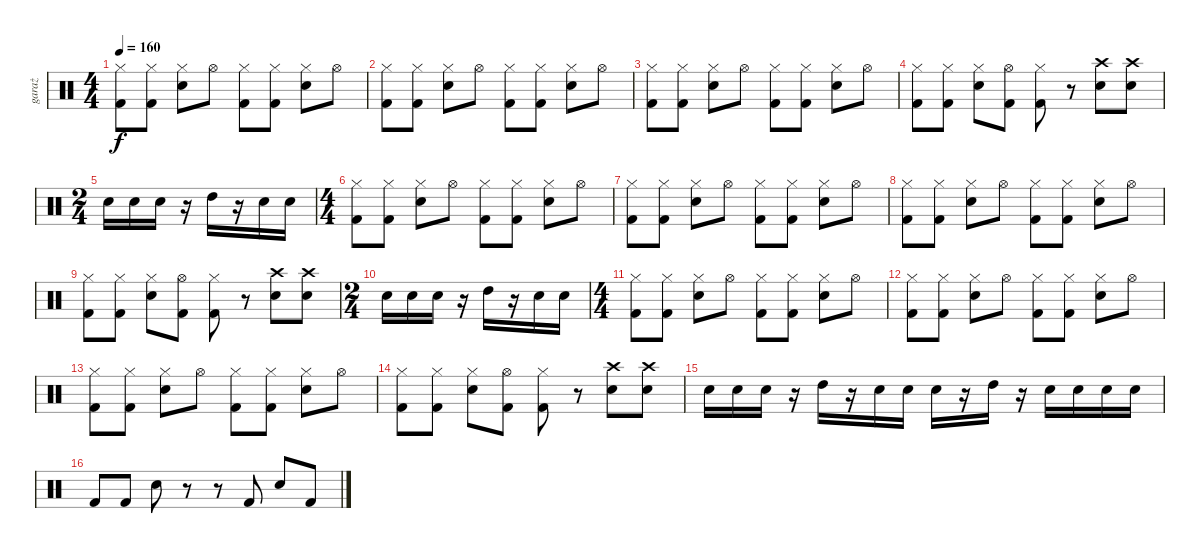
\track ("garaż" "garaż") {instrument percussion}
\staff {score}
\articulation defaults
\ts (4 4)
\tempo 160
\clef neutral
\ks c
("Hi-Hat (closed)" "Kick (hit) 2").8{dy f} ("Hi-Hat (closed)" "Kick (hit) 2").8 ("Hi-Hat (closed)" "Snare (hit) 2").8 "Hi-Hat (open)".8 ("Hi-Hat (closed)" "Kick (hit) 2").8 ("Hi-Hat (closed)" "Kick (hit) 2").8 ("Hi-Hat (closed)" "Snare (hit) 2").8 "Hi-Hat (open)".8 |
("Hi-Hat (closed)" "Kick (hit) 2").8 ("Hi-Hat (closed)" "Kick (hit) 2").8 ("Hi-Hat (closed)" "Snare (hit) 2").8 "Hi-Hat (open)".8 ("Hi-Hat (closed)" "Kick (hit) 2").8 ("Hi-Hat (closed)" "Kick (hit) 2").8 ("Hi-Hat (closed)" "Snare (hit) 2").8 "Hi-Hat (open)".8 |
("Hi-Hat (closed)" "Kick (hit) 2").8 ("Hi-Hat (closed)" "Kick (hit) 2").8 ("Hi-Hat (closed)" "Snare (hit) 2").8 "Hi-Hat (open)".8 ("Hi-Hat (closed)" "Kick (hit) 2").8 ("Hi-Hat (closed)" "Kick (hit) 2").8 ("Hi-Hat (closed)" "Snare (hit) 2").8 "Hi-Hat (open)".8 |
("Hi-Hat (closed)" "Kick (hit) 2").8 ("Hi-Hat (closed)" "Kick (hit) 2").8 ("Hi-Hat (closed)" "Snare (hit) 2").8 ("Hi-Hat (open)" "Kick (hit) 2").8 ("Hi-Hat (closed)" "Kick (hit) 2").8 r.8 ("Crash high (hit)" "Snare (hit) 2").8 ("Crash high (hit)" "Snare (hit) 2").8 |
\ts (2 4)
"Snare (hit) 2".16 "Snare (hit) 2".16 "Snare (hit) 2".16 r.16 "High Tom (hit)".16 r.16 "Snare (hit) 2".16 "Snare (hit) 2".16 |
\ts (4 4)
("Hi-Hat (closed)" "Kick (hit) 2").8 ("Hi-Hat (closed)" "Kick (hit) 2").8 ("Hi-Hat (closed)" "Snare (hit) 2").8 "Hi-Hat (open)".8 ("Hi-Hat (closed)" "Kick (hit) 2").8 ("Hi-Hat (closed)" "Kick (hit) 2").8 ("Hi-Hat (closed)" "Snare (hit) 2").8 "Hi-Hat (open)".8 |
("Hi-Hat (closed)" "Kick (hit) 2").8 ("Hi-Hat (closed)" "Kick (hit) 2").8 ("Hi-Hat (closed)" "Snare (hit) 2").8 "Hi-Hat (open)".8 ("Hi-Hat (closed)" "Kick (hit) 2").8 ("Hi-Hat (closed)" "Kick (hit) 2").8 ("Hi-Hat (closed)" "Snare (hit) 2").8 "Hi-Hat (open)".8 |
("Hi-Hat (closed)" "Kick (hit) 2").8 ("Hi-Hat (closed)" "Kick (hit) 2").8 ("Hi-Hat (closed)" "Snare (hit) 2").8 "Hi-Hat (open)".8 ("Hi-Hat (closed)" "Kick (hit) 2").8 ("Hi-Hat (closed)" "Kick (hit) 2").8 ("Hi-Hat (closed)" "Snare (hit) 2").8 "Hi-Hat (open)".8 |
("Hi-Hat (closed)" "Kick (hit) 2").8 ("Hi-Hat (closed)" "Kick (hit) 2").8 ("Hi-Hat (closed)" "Snare (hit) 2").8 ("Hi-Hat (open)" "Kick (hit) 2").8 ("Hi-Hat (closed)" "Kick (hit) 2").8 r.8 ("Crash high (hit)" "Snare (hit) 2").8 ("Crash high (hit)" "Snare (hit) 2").8 |
\ts (2 4)
"Snare (hit) 2".16 "Snare (hit) 2".16 "Snare (hit) 2".16 r.16 "High Tom (hit)".16 r.16 "Snare (hit) 2".16 "Snare (hit) 2".16 |
\ts (4 4)
("Hi-Hat (closed)" "Kick (hit) 2").8 ("Hi-Hat (closed)" "Kick (hit) 2").8 ("Hi-Hat (closed)" "Snare (hit) 2").8 "Hi-Hat (open)".8 ("Hi-Hat (closed)" "Kick (hit) 2").8 ("Hi-Hat (closed)" "Kick (hit) 2").8 ("Hi-Hat (closed)" "Snare (hit) 2").8 "Hi-Hat (open)".8 |
("Hi-Hat (closed)" "Kick (hit) 2").8 ("Hi-Hat (closed)" "Kick (hit) 2").8 ("Hi-Hat (closed)" "Snare (hit) 2").8 "Hi-Hat (open)".8 ("Hi-Hat (closed)" "Kick (hit) 2").8 ("Hi-Hat (closed)" "Kick (hit) 2").8 ("Hi-Hat (closed)" "Snare (hit) 2").8 "Hi-Hat (open)".8 |
("Hi-Hat (closed)" "Kick (hit) 2").8 ("Hi-Hat (closed)" "Kick (hit) 2").8 ("Hi-Hat (closed)" "Snare (hit) 2").8 "Hi-Hat (open)".8 ("Hi-Hat (closed)" "Kick (hit) 2").8 ("Hi-Hat (closed)" "Kick (hit) 2").8 ("Hi-Hat (closed)" "Snare (hit) 2").8 "Hi-Hat (open)".8 |
("Hi-Hat (closed)" "Kick (hit) 2").8 ("Hi-Hat (closed)" "Kick (hit) 2").8 ("Hi-Hat (closed)" "Snare (hit) 2").8 ("Hi-Hat (open)" "Kick (hit) 2").8 ("Hi-Hat (closed)" "Kick (hit) 2").8 r.8 ("Crash high (hit)" "Snare (hit) 2").8 ("Crash high (hit)" "Snare (hit) 2").8 |
"Snare (hit) 2".16 "Snare (hit) 2".16 "Snare (hit) 2".16 r.16 "High Tom (hit)".16 r.16 "Snare (hit) 2".16 "Snare (hit) 2".16 "Snare (hit) 2".16 r.16 "High Tom (hit)".16 r.16 "Snare (hit) 2".16 "Snare (hit) 2".16 "Snare (hit) 2".16 "Snare (hit) 2".16 |
"Kick (hit) 2".8 "Kick (hit) 2".8 "Snare (hit) 2".8 r.8 r.8 "Kick (hit) 2".8 "Snare (hit) 2".8 "Kick (hit) 2".8
